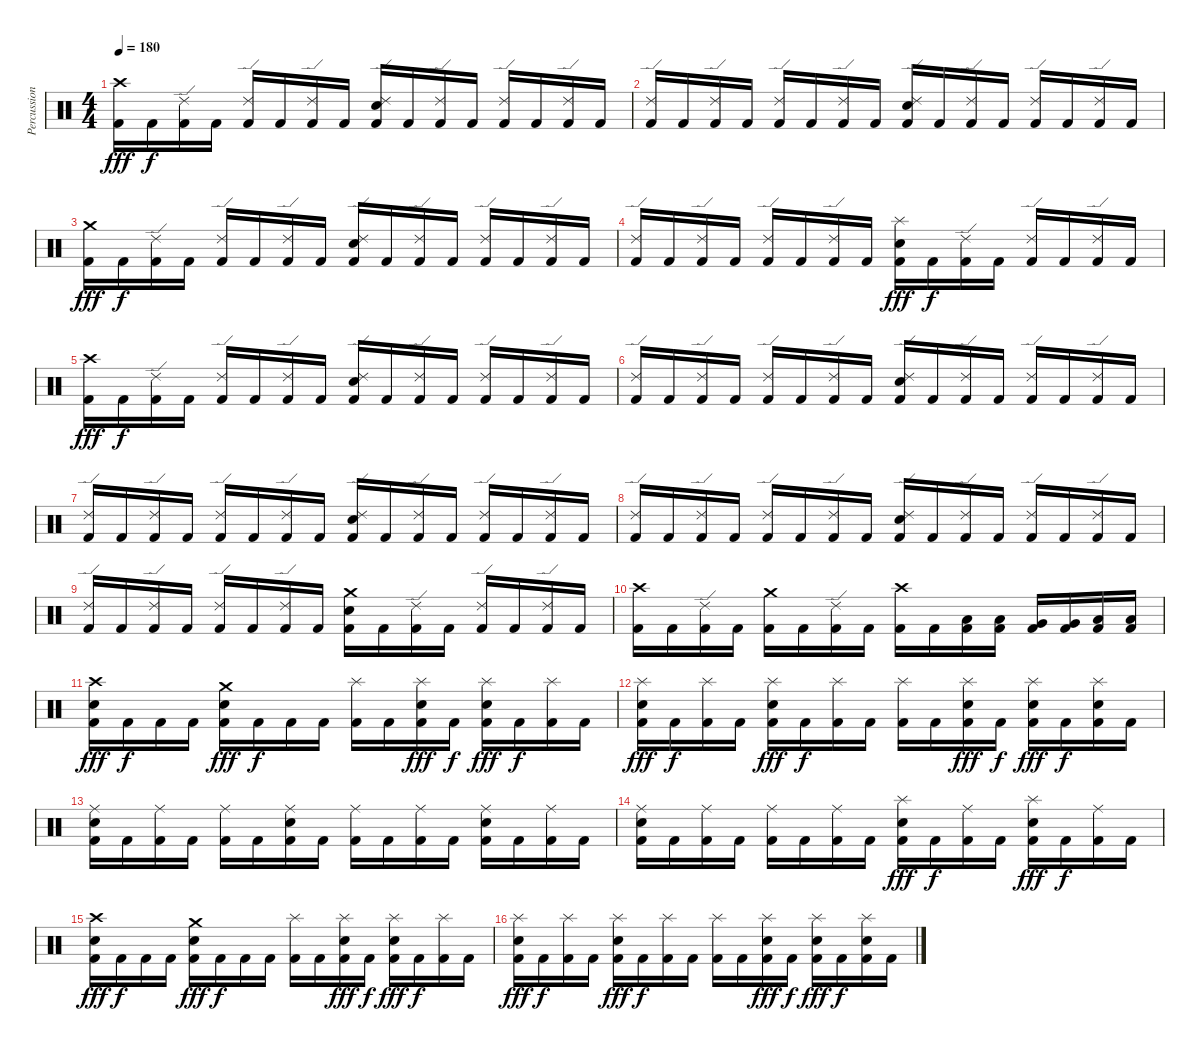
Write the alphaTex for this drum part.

\track ("Percussion" "Percussion") {instrument percussion}
\staff {score}
\articulation defaults
\ts (4 4)
\tempo 180
\clef neutral
\ks c
("Crash high (hit)" "Kick (hit) 2").16{dy fff} "Kick (hit) 2".16{dy f} ("Ride (edge) 2" "Kick (hit) 2").16 "Kick (hit) 2".16 ("Ride (edge) 2" "Kick (hit) 2").16 "Kick (hit) 2".16 ("Ride (edge) 2" "Kick (hit) 2").16 "Kick (hit) 2".16 ("Ride (edge) 2" "Electric Snare (hit)" "Kick (hit) 2").16 "Kick (hit) 2".16 ("Ride (edge) 2" "Kick (hit) 2").16 "Kick (hit) 2".16 ("Ride (edge) 2" "Kick (hit) 2").16 "Kick (hit) 2".16 ("Ride (edge) 2" "Kick (hit) 2").16 "Kick (hit) 2".16 |
("Ride (edge) 2" "Kick (hit) 2").16 "Kick (hit) 2".16 ("Ride (edge) 2" "Kick (hit) 2").16 "Kick (hit) 2".16 ("Ride (edge) 2" "Kick (hit) 2").16 "Kick (hit) 2".16 ("Ride (edge) 2" "Kick (hit) 2").16 "Kick (hit) 2".16 ("Ride (edge) 2" "Electric Snare (hit)" "Kick (hit) 2").16 "Kick (hit) 2".16 ("Ride (edge) 2" "Kick (hit) 2").16 "Kick (hit) 2".16 ("Ride (edge) 2" "Kick (hit) 2").16 "Kick (hit) 2".16 ("Ride (edge) 2" "Kick (hit) 2").16 "Kick (hit) 2".16 |
("Crash medium (hit)" "Kick (hit) 2").16{dy fff} "Kick (hit) 2".16{dy f} ("Ride (edge) 2" "Kick (hit) 2").16 "Kick (hit) 2".16 ("Ride (edge) 2" "Kick (hit) 2").16 "Kick (hit) 2".16 ("Ride (edge) 2" "Kick (hit) 2").16 "Kick (hit) 2".16 ("Ride (edge) 2" "Electric Snare (hit)" "Kick (hit) 2").16 "Kick (hit) 2".16 ("Ride (edge) 2" "Kick (hit) 2").16 "Kick (hit) 2".16 ("Ride (edge) 2" "Kick (hit) 2").16 "Kick (hit) 2".16 ("Ride (edge) 2" "Kick (hit) 2").16 "Kick (hit) 2".16 |
("Ride (edge) 2" "Kick (hit) 2").16 "Kick (hit) 2".16 ("Ride (edge) 2" "Kick (hit) 2").16 "Kick (hit) 2".16 ("Ride (edge) 2" "Kick (hit) 2").16 "Kick (hit) 2".16 ("Ride (edge) 2" "Kick (hit) 2").16 "Kick (hit) 2".16 ("Splash (hit)" "Electric Snare (hit)" "Kick (hit) 2").16{dy fff} "Kick (hit) 2".16{dy f} ("Ride (edge) 2" "Kick (hit) 2").16 "Kick (hit) 2".16 ("Ride (edge) 2" "Kick (hit) 2").16 "Kick (hit) 2".16 ("Ride (edge) 2" "Kick (hit) 2").16 "Kick (hit) 2".16 |
("Crash high (hit)" "Kick (hit) 2").16{dy fff} "Kick (hit) 2".16{dy f} ("Ride (edge) 2" "Kick (hit) 2").16 "Kick (hit) 2".16 ("Ride (edge) 2" "Kick (hit) 2").16 "Kick (hit) 2".16 ("Ride (edge) 2" "Kick (hit) 2").16 "Kick (hit) 2".16 ("Ride (edge) 2" "Electric Snare (hit)" "Kick (hit) 2").16 "Kick (hit) 2".16 ("Ride (edge) 2" "Kick (hit) 2").16 "Kick (hit) 2".16 ("Ride (edge) 2" "Kick (hit) 2").16 "Kick (hit) 2".16 ("Ride (edge) 2" "Kick (hit) 2").16 "Kick (hit) 2".16 |
("Ride (edge) 2" "Kick (hit) 2").16 "Kick (hit) 2".16 ("Ride (edge) 2" "Kick (hit) 2").16 "Kick (hit) 2".16 ("Ride (edge) 2" "Kick (hit) 2").16 "Kick (hit) 2".16 ("Ride (edge) 2" "Kick (hit) 2").16 "Kick (hit) 2".16 ("Ride (edge) 2" "Electric Snare (hit)" "Kick (hit) 2").16 "Kick (hit) 2".16 ("Ride (edge) 2" "Kick (hit) 2").16 "Kick (hit) 2".16 ("Ride (edge) 2" "Kick (hit) 2").16 "Kick (hit) 2".16 ("Ride (edge) 2" "Kick (hit) 2").16 "Kick (hit) 2".16 |
("Ride (edge) 2" "Kick (hit) 2").16 "Kick (hit) 2".16 ("Ride (edge) 2" "Kick (hit) 2").16 "Kick (hit) 2".16 ("Ride (edge) 2" "Kick (hit) 2").16 "Kick (hit) 2".16 ("Ride (edge) 2" "Kick (hit) 2").16 "Kick (hit) 2".16 ("Ride (edge) 2" "Electric Snare (hit)" "Kick (hit) 2").16 "Kick (hit) 2".16 ("Ride (edge) 2" "Kick (hit) 2").16 "Kick (hit) 2".16 ("Ride (edge) 2" "Kick (hit) 2").16 "Kick (hit) 2".16 ("Ride (edge) 2" "Kick (hit) 2").16 "Kick (hit) 2".16 |
("Ride (edge) 2" "Kick (hit) 2").16 "Kick (hit) 2".16 ("Ride (edge) 2" "Kick (hit) 2").16 "Kick (hit) 2".16 ("Ride (edge) 2" "Kick (hit) 2").16 "Kick (hit) 2".16 ("Ride (edge) 2" "Kick (hit) 2").16 "Kick (hit) 2".16 ("Ride (edge) 2" "Electric Snare (hit)" "Kick (hit) 2").16 "Kick (hit) 2".16 ("Ride (edge) 2" "Kick (hit) 2").16 "Kick (hit) 2".16 ("Ride (edge) 2" "Kick (hit) 2").16 "Kick (hit) 2".16 ("Ride (edge) 2" "Kick (hit) 2").16 "Kick (hit) 2".16 |
("Ride (edge) 2" "Kick (hit) 2").16 "Kick (hit) 2".16 ("Ride (edge) 2" "Kick (hit) 2").16 "Kick (hit) 2".16 ("Ride (edge) 2" "Kick (hit) 2").16 "Kick (hit) 2".16 ("Ride (edge) 2" "Kick (hit) 2").16 "Kick (hit) 2".16 ("Crash medium (hit)" "Electric Snare (hit)" "Kick (hit) 2").16 "Kick (hit) 2".16 ("Ride (edge) 2" "Kick (hit) 2").16 "Kick (hit) 2".16 ("Ride (edge) 2" "Kick (hit) 2").16 "Kick (hit) 2".16 ("Ride (edge) 2" "Kick (hit) 2").16 "Kick (hit) 2".16 |
("Crash high (hit)" "Kick (hit) 2").16 "Kick (hit) 2".16 ("Ride (edge) 2" "Kick (hit) 2").16 "Kick (hit) 2".16 ("Crash medium (hit)" "Kick (hit) 2").16 "Kick (hit) 2".16 ("Ride (edge) 2" "Kick (hit) 2").16 "Kick (hit) 2".16 ("Crash high (hit)" "Kick (hit) 2").16 "Kick (hit) 2".16 ("Low Tom (hit)" "Kick (hit) 2").16 ("Low Tom (hit)" "Kick (hit) 2").16 ("Very Low Tom (hit)" "Kick (hit) 2").16 ("Very Low Tom (hit)" "Kick (hit) 2").16 ("Low Floor Tom (hit)" "Kick (hit) 2").16 ("Low Floor Tom (hit)" "Kick (hit) 2").16 |
("Crash high (hit)" "Electric Snare (hit)" "Kick (hit) 2").16{dy fff} "Kick (hit) 2".16{dy f} "Kick (hit) 2".16 "Kick (hit) 2".16 ("Crash medium (hit)" "Electric Snare (hit)" "Kick (hit) 2").16{dy fff} "Kick (hit) 2".16{dy f} "Kick (hit) 2".16 "Kick (hit) 2".16 ("Splash (hit)" "Kick (hit) 2").16 "Kick (hit) 2".16 ("Splash (hit)" "Electric Snare (hit)" "Kick (hit) 2").16{dy fff} "Kick (hit) 2".16{dy f} ("Splash (hit)" "Electric Snare (hit)" "Kick (hit) 2").16{dy fff} "Kick (hit) 2".16{dy f} ("Splash (hit)" "Kick (hit) 2").16 "Kick (hit) 2".16 |
("Splash (hit)" "Electric Snare (hit)" "Kick (hit) 2").16{dy fff} "Kick (hit) 2".16{dy f} ("Splash (hit)" "Kick (hit) 2").16 "Kick (hit) 2".16 ("Splash (hit)" "Electric Snare (hit)" "Kick (hit) 2").16{dy fff} "Kick (hit) 2".16{dy f} ("Splash (hit)" "Kick (hit) 2").16 "Kick (hit) 2".16 ("Splash (hit)" "Kick (hit) 2").16 "Kick (hit) 2".16 ("Splash (hit)" "Electric Snare (hit)" "Kick (hit) 2").16{dy fff} "Kick (hit) 2".16{dy f} ("Splash (hit)" "Electric Snare (hit)" "Kick (hit) 2").16{dy fff} "Kick (hit) 2".16{dy f} ("Splash (hit)" "Electric Snare (hit)" "Kick (hit) 2").16 "Kick (hit) 2".16 |
("Ride (middle)" "Electric Snare (hit)" "Kick (hit) 2").16 "Kick (hit) 2".16 ("Ride (middle)" "Kick (hit) 2").16 "Kick (hit) 2".16 ("Ride (middle)" "Kick (hit) 2").16 "Kick (hit) 2".16 ("Ride (middle)" "Electric Snare (hit)" "Kick (hit) 2").16 "Kick (hit) 2".16 ("Ride (middle)" "Kick (hit) 2").16 "Kick (hit) 2".16 ("Ride (middle)" "Kick (hit) 2").16 "Kick (hit) 2".16 ("Ride (middle)" "Electric Snare (hit)" "Kick (hit) 2").16 "Kick (hit) 2".16 ("Ride (middle)" "Kick (hit) 2").16 "Kick (hit) 2".16 |
("Ride (middle)" "Electric Snare (hit)" "Kick (hit) 2").16 "Kick (hit) 2".16 ("Ride (middle)" "Kick (hit) 2").16 "Kick (hit) 2".16 ("Ride (middle)" "Kick (hit) 2").16 "Kick (hit) 2".16 ("Ride (middle)" "Kick (hit) 2").16 "Kick (hit) 2".16 ("Splash (hit)" "Electric Snare (hit)" "Kick (hit) 2").16{dy fff} "Kick (hit) 2".16{dy f} ("Ride (middle)" "Kick (hit) 2").16 "Kick (hit) 2".16 ("Splash (hit)" "Electric Snare (hit)" "Kick (hit) 2").16{dy fff} "Kick (hit) 2".16{dy f} ("Ride (middle)" "Kick (hit) 2").16 "Kick (hit) 2".16 |
("Crash high (hit)" "Electric Snare (hit)" "Kick (hit) 2").16{dy fff} "Kick (hit) 2".16{dy f} "Kick (hit) 2".16 "Kick (hit) 2".16 ("Crash medium (hit)" "Electric Snare (hit)" "Kick (hit) 2").16{dy fff} "Kick (hit) 2".16{dy f} "Kick (hit) 2".16 "Kick (hit) 2".16 ("Splash (hit)" "Kick (hit) 2").16 "Kick (hit) 2".16 ("Splash (hit)" "Electric Snare (hit)" "Kick (hit) 2").16{dy fff} "Kick (hit) 2".16{dy f} ("Splash (hit)" "Electric Snare (hit)" "Kick (hit) 2").16{dy fff} "Kick (hit) 2".16{dy f} ("Splash (hit)" "Kick (hit) 2").16 "Kick (hit) 2".16 |
("Splash (hit)" "Electric Snare (hit)" "Kick (hit) 2").16{dy fff} "Kick (hit) 2".16{dy f} ("Splash (hit)" "Kick (hit) 2").16 "Kick (hit) 2".16 ("Splash (hit)" "Electric Snare (hit)" "Kick (hit) 2").16{dy fff} "Kick (hit) 2".16{dy f} ("Splash (hit)" "Kick (hit) 2").16 "Kick (hit) 2".16 ("Splash (hit)" "Kick (hit) 2").16 "Kick (hit) 2".16 ("Splash (hit)" "Electric Snare (hit)" "Kick (hit) 2").16{dy fff} "Kick (hit) 2".16{dy f} ("Splash (hit)" "Electric Snare (hit)" "Kick (hit) 2").16{dy fff} "Kick (hit) 2".16{dy f} ("Splash (hit)" "Electric Snare (hit)" "Kick (hit) 2").16 "Kick (hit) 2".16
